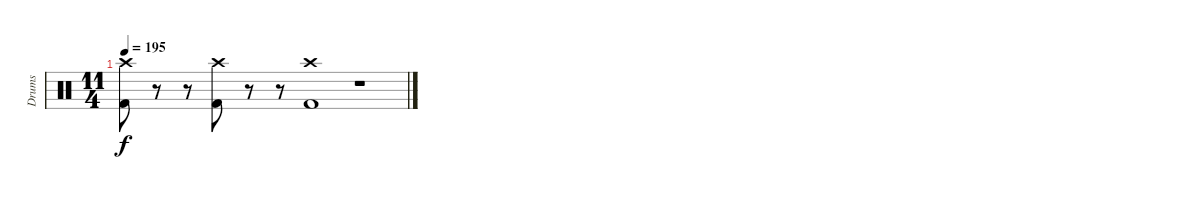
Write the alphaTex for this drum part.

\track ("Drums" "Drums") {instrument percussion}
\staff
\articulation defaults
\ts (11 4)
\tempo 195
\clef neutral
\ks c
("Crash high (hit)" "Kick (hit) 2").8{dy f} r.8 r.8 ("Crash high (hit)" "Kick (hit) 2").8 r.8 r.8 ("Crash high (hit)" "Kick (hit) 2").1 r.1
